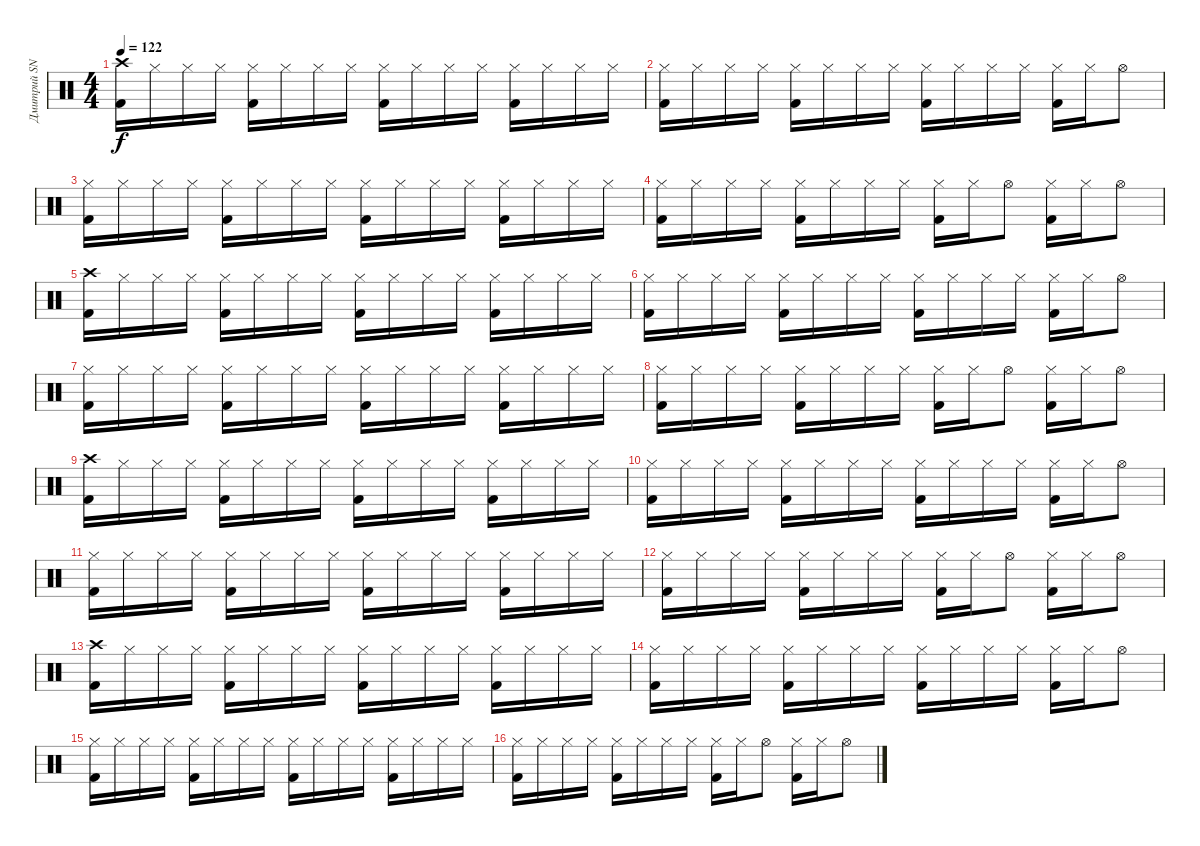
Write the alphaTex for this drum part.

\track ("Дмитрий SNAKE Хакимов" "Дмитрий SN") {instrument percussion}
\staff {score}
\articulation defaults
\ts (4 4)
\tempo 122
\clef neutral
\ks c
("Crash high (hit)" "Kick (hit) 2").16{dy f} "Hi-Hat (closed)".16 "Hi-Hat (closed)".16 "Hi-Hat (closed)".16 ("Hi-Hat (closed)" "Kick (hit) 2").16 "Hi-Hat (closed)".16 "Hi-Hat (closed)".16 "Hi-Hat (closed)".16 ("Hi-Hat (closed)" "Kick (hit) 2").16 "Hi-Hat (closed)".16 "Hi-Hat (closed)".16 "Hi-Hat (closed)".16 ("Hi-Hat (closed)" "Kick (hit) 2").16 "Hi-Hat (closed)".16 "Hi-Hat (closed)".16 "Hi-Hat (closed)".16 |
("Hi-Hat (closed)" "Kick (hit) 2").16 "Hi-Hat (closed)".16 "Hi-Hat (closed)".16 "Hi-Hat (closed)".16 ("Hi-Hat (closed)" "Kick (hit) 2").16 "Hi-Hat (closed)".16 "Hi-Hat (closed)".16 "Hi-Hat (closed)".16 ("Hi-Hat (closed)" "Kick (hit) 2").16 "Hi-Hat (closed)".16 "Hi-Hat (closed)".16 "Hi-Hat (closed)".16 ("Hi-Hat (closed)" "Kick (hit) 2").16 "Hi-Hat (closed)".16 "Hi-Hat (open)".8 |
("Hi-Hat (closed)" "Kick (hit) 2").16 "Hi-Hat (closed)".16 "Hi-Hat (closed)".16 "Hi-Hat (closed)".16 ("Hi-Hat (closed)" "Kick (hit) 2").16 "Hi-Hat (closed)".16 "Hi-Hat (closed)".16 "Hi-Hat (closed)".16 ("Hi-Hat (closed)" "Kick (hit) 2").16 "Hi-Hat (closed)".16 "Hi-Hat (closed)".16 "Hi-Hat (closed)".16 ("Hi-Hat (closed)" "Kick (hit) 2").16 "Hi-Hat (closed)".16 "Hi-Hat (closed)".16 "Hi-Hat (closed)".16 |
("Hi-Hat (closed)" "Kick (hit) 2").16 "Hi-Hat (closed)".16 "Hi-Hat (closed)".16 "Hi-Hat (closed)".16 ("Hi-Hat (closed)" "Kick (hit) 2").16 "Hi-Hat (closed)".16 "Hi-Hat (closed)".16 "Hi-Hat (closed)".16 ("Hi-Hat (closed)" "Kick (hit) 2").16 "Hi-Hat (closed)".16 "Hi-Hat (open)".8 ("Hi-Hat (closed)" "Kick (hit) 2").16 "Hi-Hat (closed)".16 "Hi-Hat (open)".8 |
("Crash high (hit)" "Kick (hit) 2").16 "Hi-Hat (closed)".16 "Hi-Hat (closed)".16 "Hi-Hat (closed)".16 ("Hi-Hat (closed)" "Kick (hit) 2").16 "Hi-Hat (closed)".16 "Hi-Hat (closed)".16 "Hi-Hat (closed)".16 ("Hi-Hat (closed)" "Kick (hit) 2").16 "Hi-Hat (closed)".16 "Hi-Hat (closed)".16 "Hi-Hat (closed)".16 ("Hi-Hat (closed)" "Kick (hit) 2").16 "Hi-Hat (closed)".16 "Hi-Hat (closed)".16 "Hi-Hat (closed)".16 |
("Hi-Hat (closed)" "Kick (hit) 2").16 "Hi-Hat (closed)".16 "Hi-Hat (closed)".16 "Hi-Hat (closed)".16 ("Hi-Hat (closed)" "Kick (hit) 2").16 "Hi-Hat (closed)".16 "Hi-Hat (closed)".16 "Hi-Hat (closed)".16 ("Hi-Hat (closed)" "Kick (hit) 2").16 "Hi-Hat (closed)".16 "Hi-Hat (closed)".16 "Hi-Hat (closed)".16 ("Hi-Hat (closed)" "Kick (hit) 2").16 "Hi-Hat (closed)".16 "Hi-Hat (open)".8 |
("Hi-Hat (closed)" "Kick (hit) 2").16 "Hi-Hat (closed)".16 "Hi-Hat (closed)".16 "Hi-Hat (closed)".16 ("Hi-Hat (closed)" "Kick (hit) 2").16 "Hi-Hat (closed)".16 "Hi-Hat (closed)".16 "Hi-Hat (closed)".16 ("Hi-Hat (closed)" "Kick (hit) 2").16 "Hi-Hat (closed)".16 "Hi-Hat (closed)".16 "Hi-Hat (closed)".16 ("Hi-Hat (closed)" "Kick (hit) 2").16 "Hi-Hat (closed)".16 "Hi-Hat (closed)".16 "Hi-Hat (closed)".16 |
("Hi-Hat (closed)" "Kick (hit) 2").16 "Hi-Hat (closed)".16 "Hi-Hat (closed)".16 "Hi-Hat (closed)".16 ("Hi-Hat (closed)" "Kick (hit) 2").16 "Hi-Hat (closed)".16 "Hi-Hat (closed)".16 "Hi-Hat (closed)".16 ("Hi-Hat (closed)" "Kick (hit) 2").16 "Hi-Hat (closed)".16 "Hi-Hat (open)".8 ("Hi-Hat (closed)" "Kick (hit) 2").16 "Hi-Hat (closed)".16 "Hi-Hat (open)".8 |
("Crash high (hit)" "Kick (hit) 2").16 "Hi-Hat (closed)".16 "Hi-Hat (closed)".16 "Hi-Hat (closed)".16 ("Hi-Hat (closed)" "Kick (hit) 2").16 "Hi-Hat (closed)".16 "Hi-Hat (closed)".16 "Hi-Hat (closed)".16 ("Hi-Hat (closed)" "Kick (hit) 2").16 "Hi-Hat (closed)".16 "Hi-Hat (closed)".16 "Hi-Hat (closed)".16 ("Hi-Hat (closed)" "Kick (hit) 2").16 "Hi-Hat (closed)".16 "Hi-Hat (closed)".16 "Hi-Hat (closed)".16 |
("Hi-Hat (closed)" "Kick (hit) 2").16 "Hi-Hat (closed)".16 "Hi-Hat (closed)".16 "Hi-Hat (closed)".16 ("Hi-Hat (closed)" "Kick (hit) 2").16 "Hi-Hat (closed)".16 "Hi-Hat (closed)".16 "Hi-Hat (closed)".16 ("Hi-Hat (closed)" "Kick (hit) 2").16 "Hi-Hat (closed)".16 "Hi-Hat (closed)".16 "Hi-Hat (closed)".16 ("Hi-Hat (closed)" "Kick (hit) 2").16 "Hi-Hat (closed)".16 "Hi-Hat (open)".8 |
("Hi-Hat (closed)" "Kick (hit) 2").16 "Hi-Hat (closed)".16 "Hi-Hat (closed)".16 "Hi-Hat (closed)".16 ("Hi-Hat (closed)" "Kick (hit) 2").16 "Hi-Hat (closed)".16 "Hi-Hat (closed)".16 "Hi-Hat (closed)".16 ("Hi-Hat (closed)" "Kick (hit) 2").16 "Hi-Hat (closed)".16 "Hi-Hat (closed)".16 "Hi-Hat (closed)".16 ("Hi-Hat (closed)" "Kick (hit) 2").16 "Hi-Hat (closed)".16 "Hi-Hat (closed)".16 "Hi-Hat (closed)".16 |
("Hi-Hat (closed)" "Kick (hit) 2").16 "Hi-Hat (closed)".16 "Hi-Hat (closed)".16 "Hi-Hat (closed)".16 ("Hi-Hat (closed)" "Kick (hit) 2").16 "Hi-Hat (closed)".16 "Hi-Hat (closed)".16 "Hi-Hat (closed)".16 ("Hi-Hat (closed)" "Kick (hit) 2").16 "Hi-Hat (closed)".16 "Hi-Hat (open)".8 ("Hi-Hat (closed)" "Kick (hit) 2").16 "Hi-Hat (closed)".16 "Hi-Hat (open)".8 |
("Crash high (hit)" "Kick (hit) 2").16 "Hi-Hat (closed)".16 "Hi-Hat (closed)".16 "Hi-Hat (closed)".16 ("Hi-Hat (closed)" "Kick (hit) 2").16 "Hi-Hat (closed)".16 "Hi-Hat (closed)".16 "Hi-Hat (closed)".16 ("Hi-Hat (closed)" "Kick (hit) 2").16 "Hi-Hat (closed)".16 "Hi-Hat (closed)".16 "Hi-Hat (closed)".16 ("Hi-Hat (closed)" "Kick (hit) 2").16 "Hi-Hat (closed)".16 "Hi-Hat (closed)".16 "Hi-Hat (closed)".16 |
("Hi-Hat (closed)" "Kick (hit) 2").16 "Hi-Hat (closed)".16 "Hi-Hat (closed)".16 "Hi-Hat (closed)".16 ("Hi-Hat (closed)" "Kick (hit) 2").16 "Hi-Hat (closed)".16 "Hi-Hat (closed)".16 "Hi-Hat (closed)".16 ("Hi-Hat (closed)" "Kick (hit) 2").16 "Hi-Hat (closed)".16 "Hi-Hat (closed)".16 "Hi-Hat (closed)".16 ("Hi-Hat (closed)" "Kick (hit) 2").16 "Hi-Hat (closed)".16 "Hi-Hat (open)".8 |
("Hi-Hat (closed)" "Kick (hit) 2").16 "Hi-Hat (closed)".16 "Hi-Hat (closed)".16 "Hi-Hat (closed)".16 ("Hi-Hat (closed)" "Kick (hit) 2").16 "Hi-Hat (closed)".16 "Hi-Hat (closed)".16 "Hi-Hat (closed)".16 ("Hi-Hat (closed)" "Kick (hit) 2").16 "Hi-Hat (closed)".16 "Hi-Hat (closed)".16 "Hi-Hat (closed)".16 ("Hi-Hat (closed)" "Kick (hit) 2").16 "Hi-Hat (closed)".16 "Hi-Hat (closed)".16 "Hi-Hat (closed)".16 |
("Hi-Hat (closed)" "Kick (hit) 2").16 "Hi-Hat (closed)".16 "Hi-Hat (closed)".16 "Hi-Hat (closed)".16 ("Hi-Hat (closed)" "Kick (hit) 2").16 "Hi-Hat (closed)".16 "Hi-Hat (closed)".16 "Hi-Hat (closed)".16 ("Hi-Hat (closed)" "Kick (hit) 2").16 "Hi-Hat (closed)".16 "Hi-Hat (open)".8 ("Hi-Hat (closed)" "Kick (hit) 2").16 "Hi-Hat (closed)".16 "Hi-Hat (open)".8
